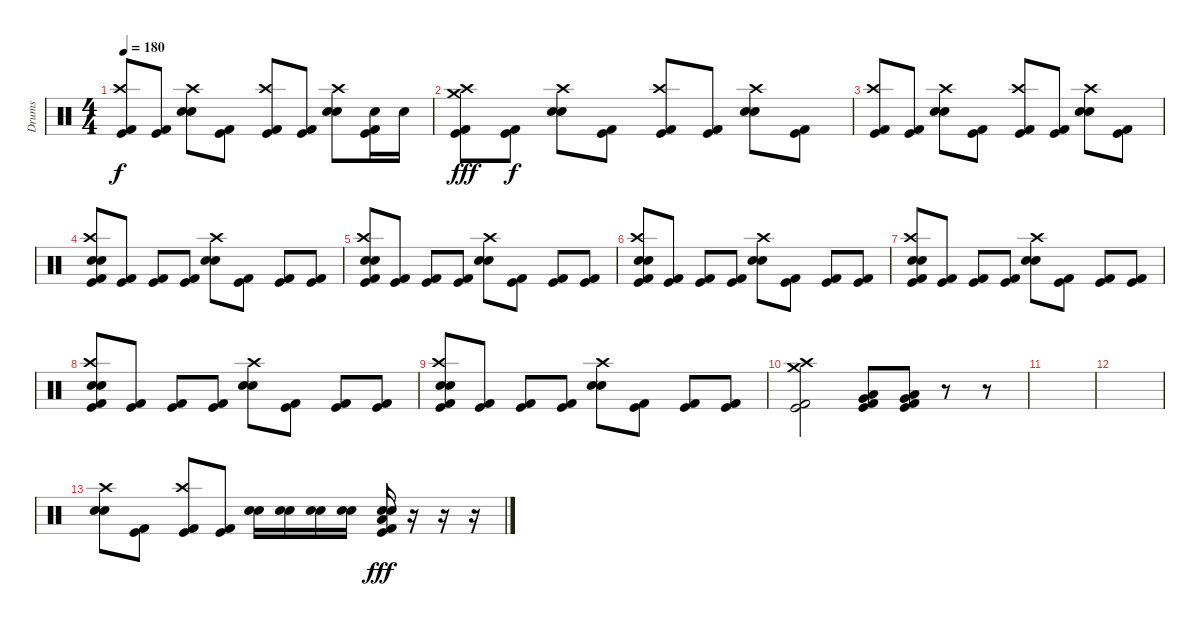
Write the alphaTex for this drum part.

\track ("Drums" "Drums") {instrument percussion}
\staff {score}
\articulation defaults
\ts (4 4)
\tempo 180
\clef neutral
\ks c
("Kick (hit)" "Crash high (hit)" "Kick (hit) 2").8{dy f} ("Kick (hit)" "Kick (hit) 2").8 ("Electric Snare (hit)" "Snare (hit) 2" "Crash high (hit)").8 ("Kick (hit)" "Kick (hit) 2").8 ("Kick (hit)" "Crash high (hit)" "Kick (hit) 2").8 ("Kick (hit)" "Kick (hit) 2").8 ("Electric Snare (hit)" "Snare (hit) 2" "Crash high (hit)").8 ("Electric Snare (hit)" "Kick (hit)" "Kick (hit) 2").16 "Electric Snare (hit)".16 |
("Crash medium (hit)" "Kick (hit)" "Crash high (hit)" "Kick (hit) 2").8{dy fff} ("Kick (hit)" "Kick (hit) 2").8{dy f} ("Electric Snare (hit)" "Snare (hit) 2" "Crash high (hit)").8 ("Kick (hit)" "Kick (hit) 2").8 ("Kick (hit)" "Crash high (hit)" "Kick (hit) 2").8 ("Kick (hit)" "Kick (hit) 2").8 ("Electric Snare (hit)" "Snare (hit) 2" "Crash high (hit)").8 ("Kick (hit)" "Kick (hit) 2").8 |
("Kick (hit)" "Crash high (hit)" "Kick (hit) 2").8 ("Kick (hit)" "Kick (hit) 2").8 ("Electric Snare (hit)" "Snare (hit) 2" "Crash high (hit)").8 ("Kick (hit)" "Kick (hit) 2").8 ("Kick (hit)" "Crash high (hit)" "Kick (hit) 2").8 ("Kick (hit)" "Kick (hit) 2").8 ("Electric Snare (hit)" "Snare (hit) 2" "Crash high (hit)").8 ("Kick (hit)" "Kick (hit) 2").8 |
("Crash high (hit)" "Electric Snare (hit)" "Snare (hit) 2" "Kick (hit)" "Kick (hit) 2").8 ("Kick (hit)" "Kick (hit) 2").8 ("Kick (hit)" "Kick (hit) 2").8 ("Kick (hit)" "Kick (hit) 2").8 ("Crash high (hit)" "Electric Snare (hit)" "Snare (hit) 2").8 ("Kick (hit)" "Kick (hit) 2").8 ("Kick (hit)" "Kick (hit) 2").8 ("Kick (hit)" "Kick (hit) 2").8 |
("Crash high (hit)" "Electric Snare (hit)" "Snare (hit) 2" "Kick (hit)" "Kick (hit) 2").8 ("Kick (hit)" "Kick (hit) 2").8 ("Kick (hit)" "Kick (hit) 2").8 ("Kick (hit)" "Kick (hit) 2").8 ("Crash high (hit)" "Electric Snare (hit)" "Snare (hit) 2").8 ("Kick (hit)" "Kick (hit) 2").8 ("Kick (hit)" "Kick (hit) 2").8 ("Kick (hit)" "Kick (hit) 2").8 |
("Crash high (hit)" "Electric Snare (hit)" "Snare (hit) 2" "Kick (hit)" "Kick (hit) 2").8 ("Kick (hit)" "Kick (hit) 2").8 ("Kick (hit)" "Kick (hit) 2").8 ("Kick (hit)" "Kick (hit) 2").8 ("Crash high (hit)" "Electric Snare (hit)" "Snare (hit) 2").8 ("Kick (hit)" "Kick (hit) 2").8 ("Kick (hit)" "Kick (hit) 2").8 ("Kick (hit)" "Kick (hit) 2").8 |
("Crash high (hit)" "Electric Snare (hit)" "Snare (hit) 2" "Kick (hit)" "Kick (hit) 2").8 ("Kick (hit)" "Kick (hit) 2").8 ("Kick (hit)" "Kick (hit) 2").8 ("Kick (hit)" "Kick (hit) 2").8 ("Crash high (hit)" "Electric Snare (hit)" "Snare (hit) 2").8 ("Kick (hit)" "Kick (hit) 2").8 ("Kick (hit)" "Kick (hit) 2").8 ("Kick (hit)" "Kick (hit) 2").8 |
("Crash high (hit)" "Electric Snare (hit)" "Snare (hit) 2" "Kick (hit)" "Kick (hit) 2").8 ("Kick (hit)" "Kick (hit) 2").8 ("Kick (hit)" "Kick (hit) 2").8 ("Kick (hit)" "Kick (hit) 2").8 ("Crash high (hit)" "Electric Snare (hit)" "Snare (hit) 2").8 ("Kick (hit)" "Kick (hit) 2").8 ("Kick (hit)" "Kick (hit) 2").8 ("Kick (hit)" "Kick (hit) 2").8 |
("Crash high (hit)" "Electric Snare (hit)" "Snare (hit) 2" "Kick (hit)" "Kick (hit) 2").8 ("Kick (hit)" "Kick (hit) 2").8 ("Kick (hit)" "Kick (hit) 2").8 ("Kick (hit)" "Kick (hit) 2").8 ("Crash high (hit)" "Electric Snare (hit)" "Snare (hit) 2").8 ("Kick (hit)" "Kick (hit) 2").8 ("Kick (hit)" "Kick (hit) 2").8 ("Kick (hit)" "Kick (hit) 2").8 |
("Crash medium (hit)" "Crash high (hit)" "Kick (hit) 2" "Kick (hit)").2 ("Very Low Tom (hit)" "Kick (hit)" "Low Floor Tom (hit)" "Kick (hit) 2").8 ("Very Low Tom (hit)" "Kick (hit)" "Low Floor Tom (hit)" "Kick (hit) 2").8 r.8 r.8 |
|
|
("Electric Snare (hit)" "Snare (hit) 2" "Crash high (hit)").8 ("Kick (hit)" "Kick (hit) 2").8 ("Kick (hit)" "Crash high (hit)" "Kick (hit) 2").8 ("Kick (hit)" "Kick (hit) 2").8 ("Electric Snare (hit)" "Snare (hit) 2").16 ("Electric Snare (hit)" "Snare (hit) 2").16 ("Electric Snare (hit)" "Snare (hit) 2").16 ("Electric Snare (hit)" "Snare (hit) 2").16 ("Low Floor Tom (hit)" "Electric Snare (hit)" "Snare (hit) 2" "Kick (hit) 2" "Kick (hit)").16{dy fff} r.16 r.16 r.16
